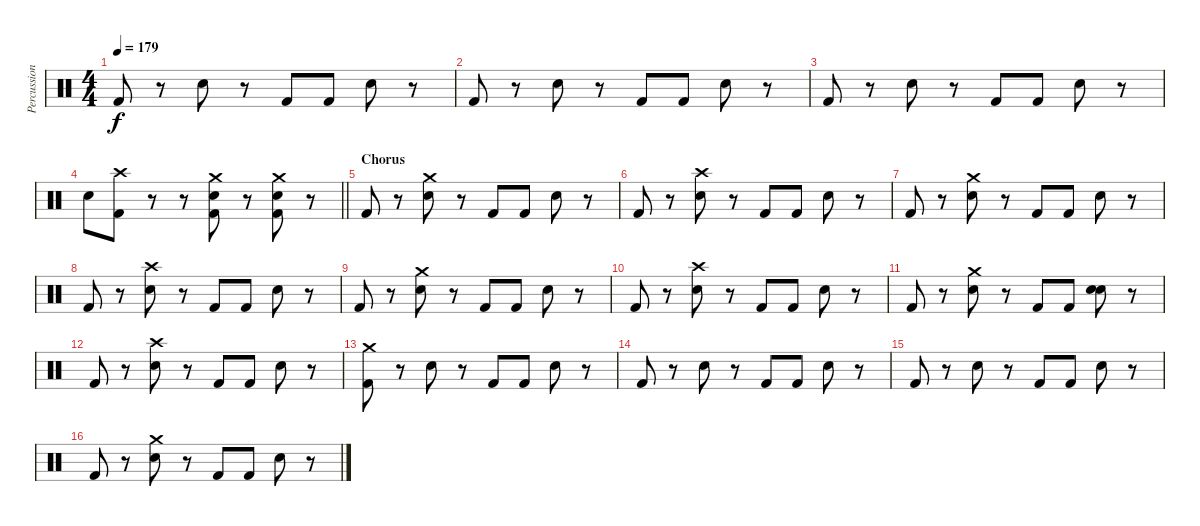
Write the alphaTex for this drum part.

\track ("Percussion" "Percussion") {instrument percussion}
\staff {score}
\articulation defaults
\ts (4 4)
\tempo 179
\clef neutral
\ks c "Kick (hit) 2".8{dy f}
r.8 "Snare (hit) 2".8 r.8 "Kick (hit) 2".8 "Kick (hit) 2".8 "Snare (hit) 2".8 r.8 |
"Kick (hit) 2".8 r.8 "Snare (hit) 2".8 r.8 "Kick (hit) 2".8 "Kick (hit) 2".8 "Snare (hit) 2".8 r.8 |
"Kick (hit) 2".8 r.8 "Snare (hit) 2".8 r.8 "Kick (hit) 2".8 "Kick (hit) 2".8 "Snare (hit) 2".8 r.8 |
\barLineRight lightlight "Snare (hit) 2".8
("Crash high (hit)" "Kick (hit) 2").8 r.8 r.8 ("Crash medium (hit)" "Snare (hit) 2" "Kick (hit) 2").8 r.8 ("Crash medium (hit)" "Snare (hit) 2" "Kick (hit) 2").8 r.8 |
\section ("" "Chorus")
"Kick (hit) 2".8 r.8 ("Crash medium (hit)" "Snare (hit) 2").8 r.8 "Kick (hit) 2".8 "Kick (hit) 2".8 "Snare (hit) 2".8 r.8 |
"Kick (hit) 2".8 r.8 ("Crash high (hit)" "Snare (hit) 2").8 r.8 "Kick (hit) 2".8 "Kick (hit) 2".8 "Snare (hit) 2".8 r.8 |
"Kick (hit) 2".8 r.8 ("Crash medium (hit)" "Snare (hit) 2").8 r.8 "Kick (hit) 2".8 "Kick (hit) 2".8 "Snare (hit) 2".8 r.8 |
"Kick (hit) 2".8 r.8 ("Crash high (hit)" "Snare (hit) 2").8 r.8 "Kick (hit) 2".8 "Kick (hit) 2".8 "Snare (hit) 2".8 r.8 |
"Kick (hit) 2".8 r.8 ("Crash medium (hit)" "Snare (hit) 2").8 r.8 "Kick (hit) 2".8 "Kick (hit) 2".8 "Snare (hit) 2".8 r.8 |
"Kick (hit) 2".8 r.8 ("Crash high (hit)" "Snare (hit) 2").8 r.8 "Kick (hit) 2".8 "Kick (hit) 2".8 "Snare (hit) 2".8 r.8 |
"Kick (hit) 2".8 r.8 ("Crash medium (hit)" "Snare (hit) 2").8 r.8 "Kick (hit) 2".8 "Kick (hit) 2".8 ("Snare (hit) 2" "Snare (hit) 2").8 r.8 |
"Kick (hit) 2".8 r.8 ("Crash high (hit)" "Snare (hit) 2").8 r.8 "Kick (hit) 2".8 "Kick (hit) 2".8 "Snare (hit) 2".8 r.8 |
("Crash medium (hit)" "Kick (hit) 2").8 r.8 "Snare (hit) 2".8 r.8 "Kick (hit) 2".8 "Kick (hit) 2".8 "Snare (hit) 2".8 r.8 |
"Kick (hit) 2".8 r.8 "Snare (hit) 2".8 r.8 "Kick (hit) 2".8 "Kick (hit) 2".8 "Snare (hit) 2".8 r.8 |
"Kick (hit) 2".8 r.8 "Snare (hit) 2".8 r.8 "Kick (hit) 2".8 "Kick (hit) 2".8 "Snare (hit) 2".8 r.8 |
"Kick (hit) 2".8 r.8 ("Crash medium (hit)" "Snare (hit) 2").8 r.8 "Kick (hit) 2".8 "Kick (hit) 2".8 "Snare (hit) 2".8 r.8
